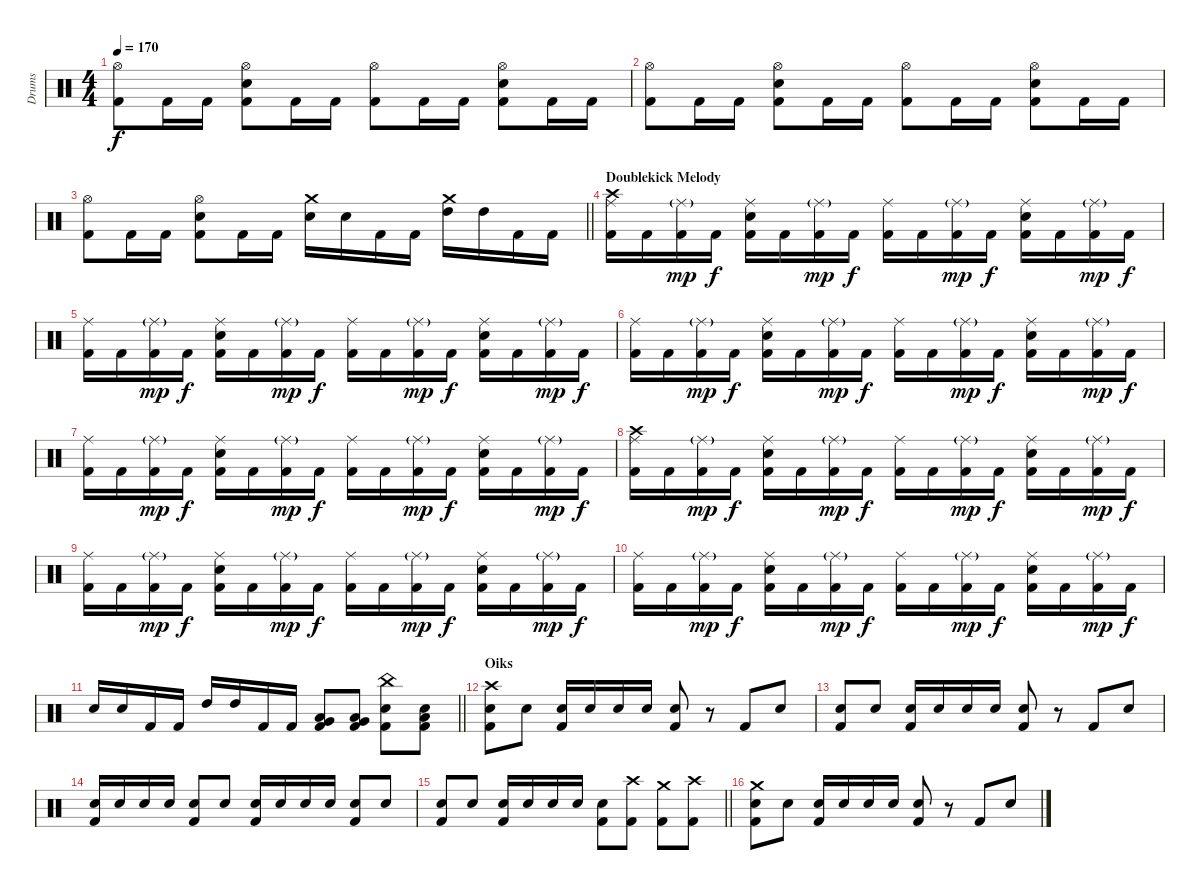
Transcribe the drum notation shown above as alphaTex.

\track ("Drums" "Drums") {instrument percussion}
\staff {score}
\articulation defaults
\ts (4 4)
\tempo 170
\clef neutral
\ks c
("Hi-Hat (open)" "Kick (hit) 2").8{dy f} "Kick (hit) 2".16 "Kick (hit) 2".16 ("Hi-Hat (open)" "Snare (hit) 2" "Kick (hit) 2").8 "Kick (hit) 2".16 "Kick (hit) 2".16 ("Hi-Hat (open)" "Kick (hit) 2").8 "Kick (hit) 2".16 "Kick (hit) 2".16 ("Hi-Hat (open)" "Snare (hit) 2" "Kick (hit) 2").8 "Kick (hit) 2".16 "Kick (hit) 2".16 |
("Hi-Hat (open)" "Kick (hit) 2").8 "Kick (hit) 2".16 "Kick (hit) 2".16 ("Hi-Hat (open)" "Snare (hit) 2" "Kick (hit) 2").8 "Kick (hit) 2".16 "Kick (hit) 2".16 ("Hi-Hat (open)" "Kick (hit) 2").8 "Kick (hit) 2".16 "Kick (hit) 2".16 ("Hi-Hat (open)" "Snare (hit) 2" "Kick (hit) 2").8 "Kick (hit) 2".16 "Kick (hit) 2".16 |
\barLineRight lightlight
("Hi-Hat (open)" "Kick (hit) 2").8 "Kick (hit) 2".16 "Kick (hit) 2".16 ("Hi-Hat (open)" "Snare (hit) 2" "Kick (hit) 2").8 "Kick (hit) 2".16 "Kick (hit) 2".16 ("Crash medium (hit)" "Snare (hit) 2").16 "Snare (hit) 2".16 "Kick (hit) 2".16 "Kick (hit) 2".16 ("Crash medium (hit)" "High Tom (hit)").16 "High Tom (hit)".16 "Kick (hit) 2".16 "Kick (hit) 2".16 |
\section ("" "Doublekick Melody")
("Crash high (hit)" "Ride (middle)" "Kick (hit) 2").16 "Kick (hit) 2".16 ("Ride (middle)"{g} "Kick (hit) 2").16{dy mp} "Kick (hit) 2".16{dy f} ("Ride (middle)" "Snare (hit) 2" "Kick (hit) 2").16 "Kick (hit) 2".16 ("Ride (middle)"{g} "Kick (hit) 2").16{dy mp} "Kick (hit) 2".16{dy f} ("Ride (middle)" "Kick (hit) 2").16 "Kick (hit) 2".16 ("Ride (middle)"{g} "Kick (hit) 2").16{dy mp} "Kick (hit) 2".16{dy f} ("Ride (middle)" "Snare (hit) 2" "Kick (hit) 2").16 "Kick (hit) 2".16 ("Ride (middle)"{g} "Kick (hit) 2").16{dy mp} "Kick (hit) 2".16{dy f} |
("Ride (middle)" "Kick (hit) 2").16 "Kick (hit) 2".16 ("Ride (middle)"{g} "Kick (hit) 2").16{dy mp} "Kick (hit) 2".16{dy f} ("Ride (middle)" "Snare (hit) 2" "Kick (hit) 2").16 "Kick (hit) 2".16 ("Ride (middle)"{g} "Kick (hit) 2").16{dy mp} "Kick (hit) 2".16{dy f} ("Ride (middle)" "Kick (hit) 2").16 "Kick (hit) 2".16 ("Ride (middle)"{g} "Kick (hit) 2").16{dy mp} "Kick (hit) 2".16{dy f} ("Ride (middle)" "Snare (hit) 2" "Kick (hit) 2").16 "Kick (hit) 2".16 ("Ride (middle)"{g} "Kick (hit) 2").16{dy mp} "Kick (hit) 2".16{dy f} |
("Ride (middle)" "Kick (hit) 2").16 "Kick (hit) 2".16 ("Ride (middle)"{g} "Kick (hit) 2").16{dy mp} "Kick (hit) 2".16{dy f} ("Ride (middle)" "Snare (hit) 2" "Kick (hit) 2").16 "Kick (hit) 2".16 ("Ride (middle)"{g} "Kick (hit) 2").16{dy mp} "Kick (hit) 2".16{dy f} ("Ride (middle)" "Kick (hit) 2").16 "Kick (hit) 2".16 ("Ride (middle)"{g} "Kick (hit) 2").16{dy mp} "Kick (hit) 2".16{dy f} ("Ride (middle)" "Snare (hit) 2" "Kick (hit) 2").16 "Kick (hit) 2".16 ("Ride (middle)"{g} "Kick (hit) 2").16{dy mp} "Kick (hit) 2".16{dy f} |
("Ride (middle)" "Kick (hit) 2").16 "Kick (hit) 2".16 ("Ride (middle)"{g} "Kick (hit) 2").16{dy mp} "Kick (hit) 2".16{dy f} ("Ride (middle)" "Snare (hit) 2" "Kick (hit) 2").16 "Kick (hit) 2".16 ("Ride (middle)"{g} "Kick (hit) 2").16{dy mp} "Kick (hit) 2".16{dy f} ("Ride (middle)" "Kick (hit) 2").16 "Kick (hit) 2".16 ("Ride (middle)"{g} "Kick (hit) 2").16{dy mp} "Kick (hit) 2".16{dy f} ("Ride (middle)" "Snare (hit) 2" "Kick (hit) 2").16 "Kick (hit) 2".16 ("Ride (middle)"{g} "Kick (hit) 2").16{dy mp} "Kick (hit) 2".16{dy f} |
("Crash high (hit)" "Ride (middle)" "Kick (hit) 2").16 "Kick (hit) 2".16 ("Ride (middle)"{g} "Kick (hit) 2").16{dy mp} "Kick (hit) 2".16{dy f} ("Ride (middle)" "Snare (hit) 2" "Kick (hit) 2").16 "Kick (hit) 2".16 ("Ride (middle)"{g} "Kick (hit) 2").16{dy mp} "Kick (hit) 2".16{dy f} ("Ride (middle)" "Kick (hit) 2").16 "Kick (hit) 2".16 ("Ride (middle)"{g} "Kick (hit) 2").16{dy mp} "Kick (hit) 2".16{dy f} ("Ride (middle)" "Snare (hit) 2" "Kick (hit) 2").16 "Kick (hit) 2".16 ("Ride (middle)"{g} "Kick (hit) 2").16{dy mp} "Kick (hit) 2".16{dy f} |
("Ride (middle)" "Kick (hit) 2").16 "Kick (hit) 2".16 ("Ride (middle)"{g} "Kick (hit) 2").16{dy mp} "Kick (hit) 2".16{dy f} ("Ride (middle)" "Snare (hit) 2" "Kick (hit) 2").16 "Kick (hit) 2".16 ("Ride (middle)"{g} "Kick (hit) 2").16{dy mp} "Kick (hit) 2".16{dy f} ("Ride (middle)" "Kick (hit) 2").16 "Kick (hit) 2".16 ("Ride (middle)"{g} "Kick (hit) 2").16{dy mp} "Kick (hit) 2".16{dy f} ("Ride (middle)" "Snare (hit) 2" "Kick (hit) 2").16 "Kick (hit) 2".16 ("Ride (middle)"{g} "Kick (hit) 2").16{dy mp} "Kick (hit) 2".16{dy f} |
("Ride (middle)" "Kick (hit) 2").16 "Kick (hit) 2".16 ("Ride (middle)"{g} "Kick (hit) 2").16{dy mp} "Kick (hit) 2".16{dy f} ("Ride (middle)" "Snare (hit) 2" "Kick (hit) 2").16 "Kick (hit) 2".16 ("Ride (middle)"{g} "Kick (hit) 2").16{dy mp} "Kick (hit) 2".16{dy f} ("Ride (middle)" "Kick (hit) 2").16 "Kick (hit) 2".16 ("Ride (middle)"{g} "Kick (hit) 2").16{dy mp} "Kick (hit) 2".16{dy f} ("Ride (middle)" "Snare (hit) 2" "Kick (hit) 2").16 "Kick (hit) 2".16 ("Ride (middle)"{g} "Kick (hit) 2").16{dy mp} "Kick (hit) 2".16{dy f} |
\barLineRight lightlight "Snare (hit) 2".16 "Snare (hit) 2".16 "Kick (hit) 2".16 "Kick (hit) 2".16 "High Tom (hit)".16 "High Tom (hit)".16 "Kick (hit) 2".16 "Kick (hit) 2".16
("Low Tom (hit)" "Very Low Tom (hit)" "Kick (hit) 2").8 ("Low Tom (hit)" "Very Low Tom (hit)" "Kick (hit) 2").8 ("China (hit)" "Snare (hit) 2" "Kick (hit) 2").8 ("Low Tom (hit)" "Snare (hit) 2" "Kick (hit) 2").8 |
\section ("" "Oiks")
("Crash high (hit)" "Snare (hit) 2" "Kick (hit) 2").8 "Snare (hit) 2".8 ("Snare (hit) 2" "Kick (hit) 2").16 "Snare (hit) 2".16 "Snare (hit) 2".16 "Snare (hit) 2".16 ("Snare (hit) 2" "Kick (hit) 2").8 r.8 "Kick (hit) 2".8 "Snare (hit) 2".8 |
("Snare (hit) 2" "Kick (hit) 2").8 "Snare (hit) 2".8 ("Snare (hit) 2" "Kick (hit) 2").16 "Snare (hit) 2".16 "Snare (hit) 2".16 "Snare (hit) 2".16 ("Snare (hit) 2" "Kick (hit) 2").8 r.8 "Kick (hit) 2".8 "Snare (hit) 2".8 |
("Snare (hit) 2" "Kick (hit) 2").16 "Snare (hit) 2".16 "Snare (hit) 2".16 "Snare (hit) 2".16 ("Snare (hit) 2" "Kick (hit) 2").8 "Snare (hit) 2".8 ("Snare (hit) 2" "Kick (hit) 2").16 "Snare (hit) 2".16 "Snare (hit) 2".16 "Snare (hit) 2".16 ("Snare (hit) 2" "Kick (hit) 2").8 "Snare (hit) 2".8 |
\barLineRight lightlight
("Snare (hit) 2" "Kick (hit) 2").8 "Snare (hit) 2".8 ("Snare (hit) 2" "Kick (hit) 2").16 "Snare (hit) 2".16 "Snare (hit) 2".16 "Snare (hit) 2".16 ("Snare (hit) 2" "Kick (hit) 2").8 ("Crash high (hit)" "Kick (hit) 2").8 ("Crash medium (hit)" "Kick (hit) 2").8 ("Crash high (hit)" "Kick (hit) 2").8 |
("Crash medium (hit)" "Snare (hit) 2" "Kick (hit) 2").8 "Snare (hit) 2".8 ("Snare (hit) 2" "Kick (hit) 2").16 "Snare (hit) 2".16 "Snare (hit) 2".16 "Snare (hit) 2".16 ("Snare (hit) 2" "Kick (hit) 2").8 r.8 "Kick (hit) 2".8 "Snare (hit) 2".8
